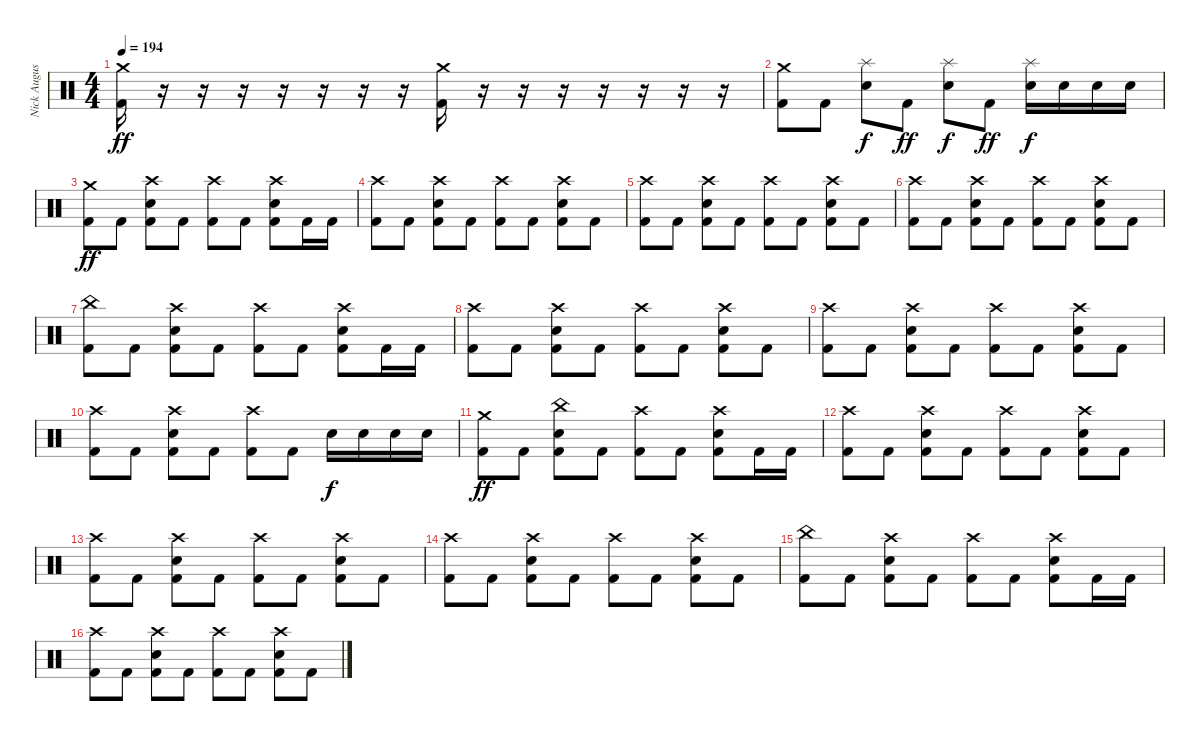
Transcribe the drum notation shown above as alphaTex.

\track ("Nick Augusto" "Nick Augus") {instrument percussion}
\staff {score}
\articulation defaults
\ts (4 4)
\tempo 194
\clef neutral
\ks c
("Crash medium (hit)" "Kick (hit) 2").16{dy ff} r.16 r.16 r.16 r.16 r.16 r.16 r.16 ("Crash medium (hit)" "Kick (hit) 2").16 r.16 r.16 r.16 r.16 r.16 r.16 r.16 |
("Crash medium (hit)" "Kick (hit) 2").8 "Kick (hit) 2".8 ("Splash (hit)" "Electric Snare (hit)").8{dy f} "Kick (hit) 2".8{dy ff} ("Splash (hit)" "Electric Snare (hit)").8{dy f} "Kick (hit) 2".8{dy ff} ("Splash (hit)" "Electric Snare (hit)").16{dy f} "Electric Snare (hit)".16 "Electric Snare (hit)".16 "Electric Snare (hit)".16 |
("Crash medium (hit)" "Kick (hit) 2").8{dy ff} "Kick (hit) 2".8 ("Crash high (hit)" "Electric Snare (hit)" "Kick (hit) 2").8 "Kick (hit) 2".8 ("Crash high (hit)" "Kick (hit) 2").8 "Kick (hit) 2".8 ("Crash high (hit)" "Electric Snare (hit)" "Kick (hit) 2").8 "Kick (hit) 2".16 "Kick (hit) 2".16 |
("Crash high (hit)" "Kick (hit) 2").8 "Kick (hit) 2".8 ("Crash high (hit)" "Electric Snare (hit)" "Kick (hit) 2").8 "Kick (hit) 2".8 ("Crash high (hit)" "Kick (hit) 2").8 "Kick (hit) 2".8 ("Crash high (hit)" "Electric Snare (hit)" "Kick (hit) 2").8 "Kick (hit) 2".8 |
("Crash high (hit)" "Kick (hit) 2").8 "Kick (hit) 2".8 ("Crash high (hit)" "Electric Snare (hit)" "Kick (hit) 2").8 "Kick (hit) 2".8 ("Crash high (hit)" "Kick (hit) 2").8 "Kick (hit) 2".8 ("Crash high (hit)" "Electric Snare (hit)" "Kick (hit) 2").8 "Kick (hit) 2".8 |
("Crash high (hit)" "Kick (hit) 2").8 "Kick (hit) 2".8 ("Crash high (hit)" "Electric Snare (hit)" "Kick (hit) 2").8 "Kick (hit) 2".8 ("Crash high (hit)" "Kick (hit) 2").8 "Kick (hit) 2".8 ("Crash high (hit)" "Electric Snare (hit)" "Kick (hit) 2").8 "Kick (hit) 2".8 |
("China (hit)" "Kick (hit) 2").8 "Kick (hit) 2".8 ("Crash high (hit)" "Electric Snare (hit)" "Kick (hit) 2").8 "Kick (hit) 2".8 ("Crash high (hit)" "Kick (hit) 2").8 "Kick (hit) 2".8 ("Crash high (hit)" "Electric Snare (hit)" "Kick (hit) 2").8 "Kick (hit) 2".16 "Kick (hit) 2".16 |
("Crash high (hit)" "Kick (hit) 2").8 "Kick (hit) 2".8 ("Crash high (hit)" "Electric Snare (hit)" "Kick (hit) 2").8 "Kick (hit) 2".8 ("Crash high (hit)" "Kick (hit) 2").8 "Kick (hit) 2".8 ("Crash high (hit)" "Electric Snare (hit)" "Kick (hit) 2").8 "Kick (hit) 2".8 |
("Crash high (hit)" "Kick (hit) 2").8 "Kick (hit) 2".8 ("Crash high (hit)" "Electric Snare (hit)" "Kick (hit) 2").8 "Kick (hit) 2".8 ("Crash high (hit)" "Kick (hit) 2").8 "Kick (hit) 2".8 ("Crash high (hit)" "Electric Snare (hit)" "Kick (hit) 2").8 "Kick (hit) 2".8 |
("Crash high (hit)" "Kick (hit) 2").8 "Kick (hit) 2".8 ("Crash high (hit)" "Electric Snare (hit)" "Kick (hit) 2").8 "Kick (hit) 2".8 ("Crash high (hit)" "Kick (hit) 2").8 "Kick (hit) 2".8 "Electric Snare (hit)".16{dy f} "Electric Snare (hit)".16 "Electric Snare (hit)".16 "Electric Snare (hit)".16 |
("Crash medium (hit)" "Kick (hit) 2").8{dy ff} "Kick (hit) 2".8 ("China (hit)" "Electric Snare (hit)" "Kick (hit) 2").8 "Kick (hit) 2".8 ("Crash high (hit)" "Kick (hit) 2").8 "Kick (hit) 2".8 ("Crash high (hit)" "Electric Snare (hit)" "Kick (hit) 2").8 "Kick (hit) 2".16 "Kick (hit) 2".16 |
("Crash high (hit)" "Kick (hit) 2").8 "Kick (hit) 2".8 ("Crash high (hit)" "Electric Snare (hit)" "Kick (hit) 2").8 "Kick (hit) 2".8 ("Crash high (hit)" "Kick (hit) 2").8 "Kick (hit) 2".8 ("Crash high (hit)" "Electric Snare (hit)" "Kick (hit) 2").8 "Kick (hit) 2".8 |
("Crash high (hit)" "Kick (hit) 2").8 "Kick (hit) 2".8 ("Crash high (hit)" "Electric Snare (hit)" "Kick (hit) 2").8 "Kick (hit) 2".8 ("Crash high (hit)" "Kick (hit) 2").8 "Kick (hit) 2".8 ("Crash high (hit)" "Electric Snare (hit)" "Kick (hit) 2").8 "Kick (hit) 2".8 |
("Crash high (hit)" "Kick (hit) 2").8 "Kick (hit) 2".8 ("Crash high (hit)" "Electric Snare (hit)" "Kick (hit) 2").8 "Kick (hit) 2".8 ("Crash high (hit)" "Kick (hit) 2").8 "Kick (hit) 2".8 ("Crash high (hit)" "Electric Snare (hit)" "Kick (hit) 2").8 "Kick (hit) 2".8 |
("China (hit)" "Kick (hit) 2").8 "Kick (hit) 2".8 ("Crash high (hit)" "Electric Snare (hit)" "Kick (hit) 2").8 "Kick (hit) 2".8 ("Crash high (hit)" "Kick (hit) 2").8 "Kick (hit) 2".8 ("Crash high (hit)" "Electric Snare (hit)" "Kick (hit) 2").8 "Kick (hit) 2".16 "Kick (hit) 2".16 |
("Crash high (hit)" "Kick (hit) 2").8 "Kick (hit) 2".8 ("Crash high (hit)" "Electric Snare (hit)" "Kick (hit) 2").8 "Kick (hit) 2".8 ("Crash high (hit)" "Kick (hit) 2").8 "Kick (hit) 2".8 ("Crash high (hit)" "Electric Snare (hit)" "Kick (hit) 2").8 "Kick (hit) 2".8
